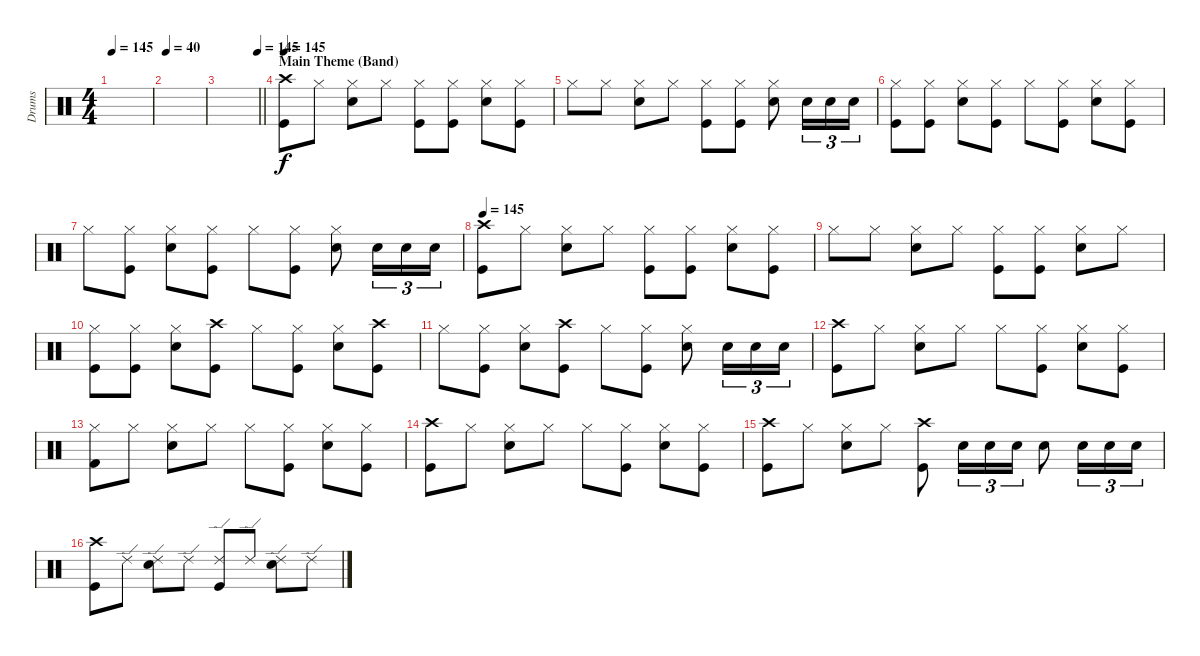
\track ("Drums" "Drums") {instrument percussion}
\staff {score}
\articulation defaults
\ts (4 4)
\tempo 145
\clef neutral
\ks c
|
\tempo 40
|
\tempo (145 0.984375)
\barLineRight lightlight
|
\section ("" "Main Theme (Band)")
\tempo 145
("Crash high (hit)" "Kick (hit)").8 "Hi-Hat (closed)".8 ("Hi-Hat (closed)" "Electric Snare (hit)").8 "Hi-Hat (closed)".8 ("Hi-Hat (closed)" "Kick (hit)").8 ("Hi-Hat (closed)" "Kick (hit)").8 ("Hi-Hat (closed)" "Electric Snare (hit)").8 ("Hi-Hat (closed)" "Kick (hit)").8 |
"Hi-Hat (closed)".8 "Hi-Hat (closed)".8 ("Hi-Hat (closed)" "Electric Snare (hit)").8 "Hi-Hat (closed)".8 ("Hi-Hat (closed)" "Kick (hit)").8 ("Hi-Hat (closed)" "Kick (hit)").8 ("Hi-Hat (closed)" "Electric Snare (hit)").8 "Electric Snare (hit)".16{tu (3 2)} "Electric Snare (hit)".16{tu (3 2)} "Electric Snare (hit)".16{tu (3 2)} |
("Hi-Hat (closed)" "Kick (hit)").8 ("Hi-Hat (closed)" "Kick (hit)").8 ("Hi-Hat (closed)" "Electric Snare (hit)").8 ("Hi-Hat (closed)" "Kick (hit)").8 "Hi-Hat (closed)".8 ("Hi-Hat (closed)" "Kick (hit)").8 ("Hi-Hat (closed)" "Electric Snare (hit)").8 ("Hi-Hat (closed)" "Kick (hit)").8 |
"Hi-Hat (closed)".8 ("Hi-Hat (closed)" "Kick (hit)").8 ("Hi-Hat (closed)" "Electric Snare (hit)").8 ("Hi-Hat (closed)" "Kick (hit)").8 "Hi-Hat (closed)".8 ("Hi-Hat (closed)" "Kick (hit)").8 ("Hi-Hat (closed)" "Electric Snare (hit)").8 "Electric Snare (hit)".16{tu (3 2)} "Electric Snare (hit)".16{tu (3 2)} "Electric Snare (hit)".16{tu (3 2)} |
\tempo 145
("Crash high (hit)" "Kick (hit)").8 "Hi-Hat (closed)".8 ("Hi-Hat (closed)" "Electric Snare (hit)").8 "Hi-Hat (closed)".8 ("Hi-Hat (closed)" "Kick (hit)").8 ("Hi-Hat (closed)" "Kick (hit)").8 ("Hi-Hat (closed)" "Electric Snare (hit)").8 ("Hi-Hat (closed)" "Kick (hit)").8 |
"Hi-Hat (closed)".8 "Hi-Hat (closed)".8 ("Hi-Hat (closed)" "Electric Snare (hit)").8 "Hi-Hat (closed)".8 ("Hi-Hat (closed)" "Kick (hit)").8 ("Hi-Hat (closed)" "Kick (hit)").8 ("Hi-Hat (closed)" "Electric Snare (hit)").8 "Hi-Hat (closed)".8 |
("Hi-Hat (closed)" "Kick (hit)").8 ("Hi-Hat (closed)" "Kick (hit)").8 ("Hi-Hat (closed)" "Electric Snare (hit)").8 ("Crash high (hit)" "Kick (hit)").8 "Hi-Hat (closed)".8 ("Hi-Hat (closed)" "Kick (hit)").8 ("Hi-Hat (closed)" "Electric Snare (hit)").8 ("Crash high (hit)" "Kick (hit)").8 |
"Hi-Hat (closed)".8 ("Hi-Hat (closed)" "Kick (hit)").8 ("Hi-Hat (closed)" "Electric Snare (hit)").8 ("Crash high (hit)" "Kick (hit)").8 "Hi-Hat (closed)".8 ("Hi-Hat (closed)" "Kick (hit)").8 ("Hi-Hat (closed)" "Electric Snare (hit)").8 "Electric Snare (hit)".16{tu (3 2)} "Electric Snare (hit)".16{tu (3 2)} "Electric Snare (hit)".16{tu (3 2)} |
("Crash high (hit)" "Kick (hit)").8 "Hi-Hat (closed)".8 ("Hi-Hat (closed)" "Electric Snare (hit)").8 "Hi-Hat (closed)".8 "Hi-Hat (closed)".8 ("Hi-Hat (closed)" "Kick (hit)").8 ("Hi-Hat (closed)" "Electric Snare (hit)").8 ("Hi-Hat (closed)" "Kick (hit)").8 |
("Hi-Hat (closed)" "Kick (hit) 2").8 "Hi-Hat (closed)".8 ("Hi-Hat (closed)" "Electric Snare (hit)").8 "Hi-Hat (closed)".8 "Hi-Hat (closed)".8 ("Hi-Hat (closed)" "Kick (hit)").8 ("Hi-Hat (closed)" "Electric Snare (hit)").8 ("Hi-Hat (closed)" "Kick (hit)").8 |
("Crash high (hit)" "Kick (hit)").8 "Hi-Hat (closed)".8 ("Hi-Hat (closed)" "Electric Snare (hit)").8 "Hi-Hat (closed)".8 "Hi-Hat (closed)".8 ("Hi-Hat (closed)" "Kick (hit)").8 ("Hi-Hat (closed)" "Electric Snare (hit)").8 ("Hi-Hat (closed)" "Kick (hit)").8 |
("Crash high (hit)" "Kick (hit)").8 "Hi-Hat (closed)".8 ("Hi-Hat (closed)" "Electric Snare (hit)").8 "Hi-Hat (closed)".8 ("Crash high (hit)" "Kick (hit)").8 "Electric Snare (hit)".16{tu (3 2)} "Electric Snare (hit)".16{tu (3 2)} "Electric Snare (hit)".16{tu (3 2)} "Electric Snare (hit)".8 "Electric Snare (hit)".16{tu (3 2)} "Electric Snare (hit)".16{tu (3 2)} "Electric Snare (hit)".16{tu (3 2)} |
("Crash high (hit)" "Kick (hit)").8 "Ride (edge) 2".8 ("Ride (edge) 2" "Electric Snare (hit)").8 "Ride (edge) 2".8 ("Ride (edge) 2" "Kick (hit)").8 "Ride (edge) 2".8 ("Ride (edge) 2" "Electric Snare (hit)").8 "Ride (edge) 2".8
